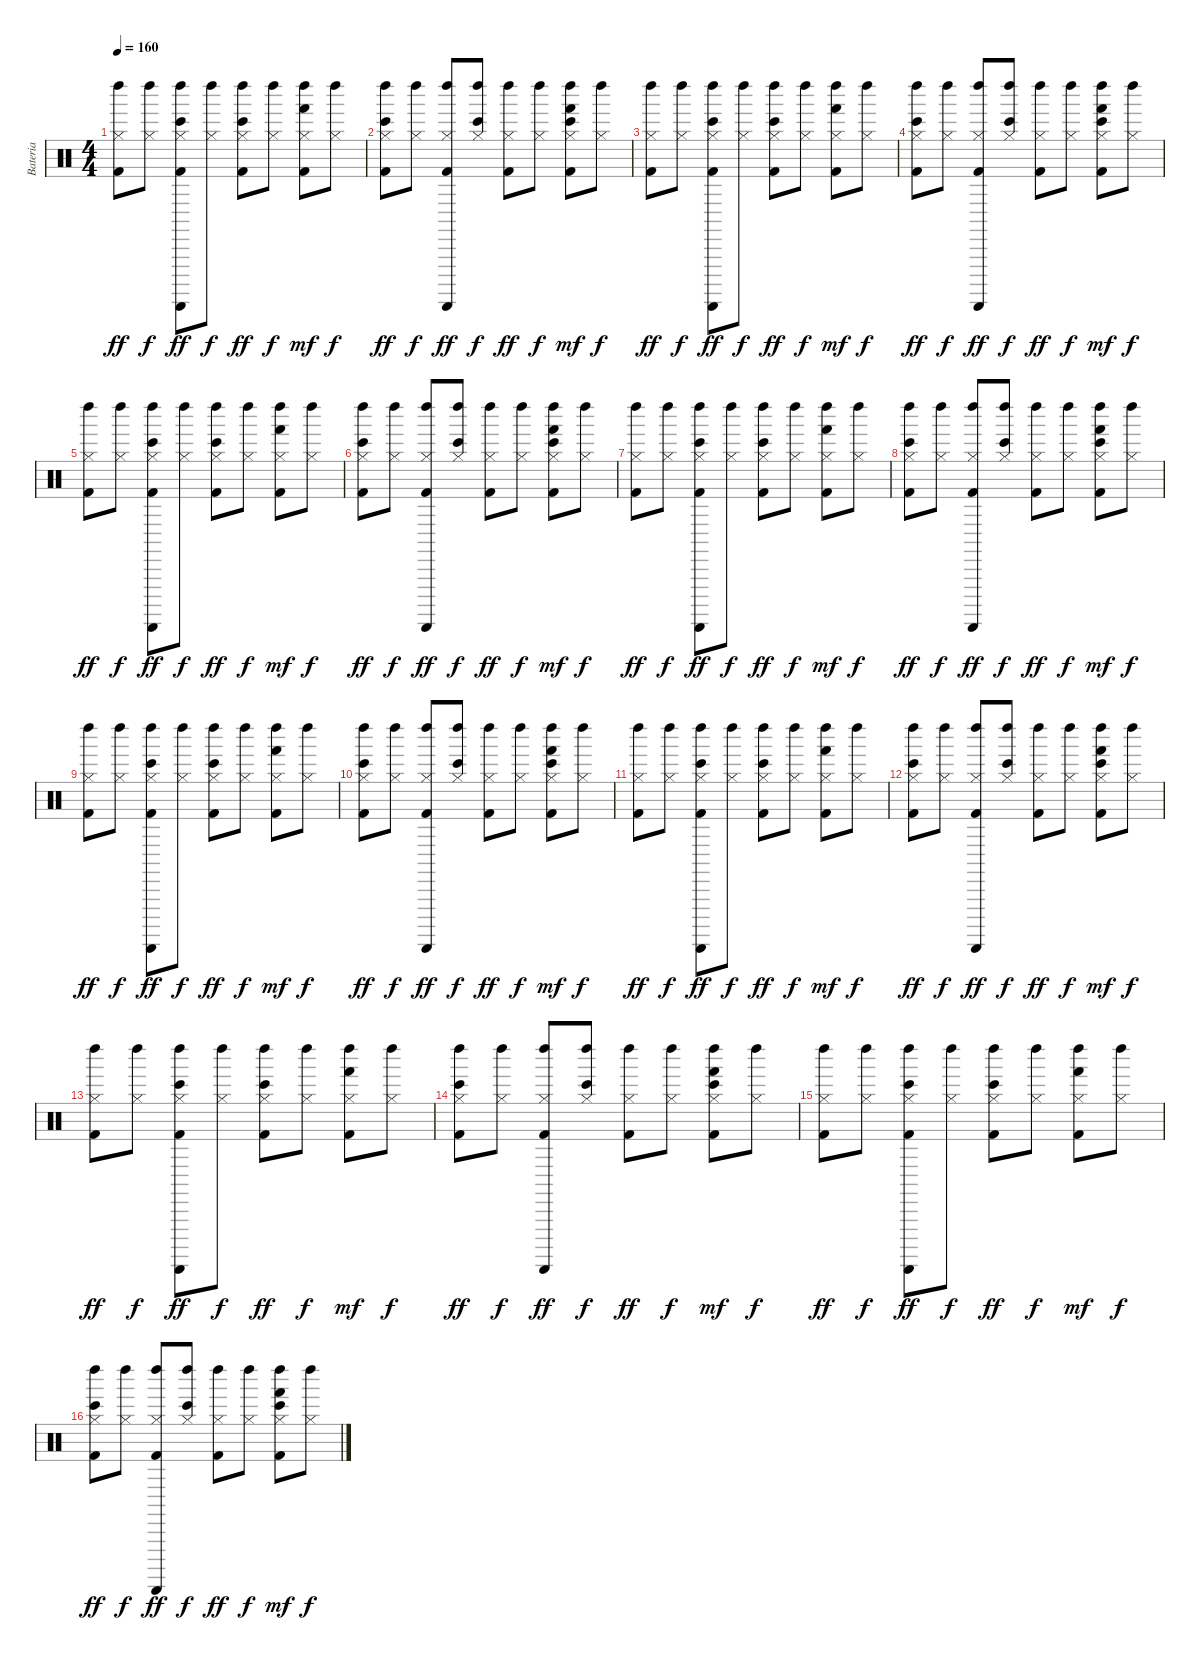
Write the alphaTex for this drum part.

\track ("Bateria" "Bateria") {instrument percussion}
\staff {score}
\articulation defaults
\ts (4 4)
\tempo 160
\clef neutral
\ks c
("Left Maraca (hit)" "Kick (hit) 2" "Hi-Hat (closed)").8{dy ff} ("Left Maraca (hit)" "Hi-Hat (closed)").8{dy f} ("Left Maraca (hit)" "Guiro (scrap-return)" "Hi-Hat (closed)" "Kick (hit) 2" "Bongo High (hit)").8{dy ff} ("Left Maraca (hit)" "Hi-Hat (closed)").8{dy f} ("Left Maraca (hit)" "Hi-Hat (closed)" "Kick (hit) 2" "Bongo High (hit)").8{dy ff} ("Left Maraca (hit)" "Hi-Hat (closed)").8{dy f} ("Left Maraca (hit)" "Hi-Hat (closed)" "Kick (hit) 2" "Hand (hit)").8{dy mf} ("Left Maraca (hit)" "Hi-Hat (closed)").8{dy f} |
("Left Maraca (hit)" "Hi-Hat (closed)" "Kick (hit) 2" "Bongo High (hit)").8{dy ff} ("Left Maraca (hit)" "Hi-Hat (closed)").8{dy f} ("Left Maraca (hit)" "Guiro (scrap-return)" "Kick (hit) 2" "Hi-Hat (closed)").8{dy ff} ("Left Maraca (hit)" "Hi-Hat (closed)" "Bongo High (hit)").8{dy f} ("Left Maraca (hit)" "Kick (hit) 2" "Hi-Hat (closed)").8{dy ff} ("Left Maraca (hit)" "Hi-Hat (closed)").8{dy f} ("Left Maraca (hit)" "Bongo High (hit)" "Hi-Hat (closed)" "Kick (hit) 2" "Hand (hit)").8{dy mf} ("Left Maraca (hit)" "Hi-Hat (closed)").8{dy f} |
("Left Maraca (hit)" "Kick (hit) 2" "Hi-Hat (closed)").8{dy ff} ("Left Maraca (hit)" "Hi-Hat (closed)").8{dy f} ("Left Maraca (hit)" "Guiro (scrap-return)" "Hi-Hat (closed)" "Kick (hit) 2" "Bongo High (hit)").8{dy ff} ("Left Maraca (hit)" "Hi-Hat (closed)").8{dy f} ("Left Maraca (hit)" "Hi-Hat (closed)" "Kick (hit) 2" "Bongo High (hit)").8{dy ff} ("Left Maraca (hit)" "Hi-Hat (closed)").8{dy f} ("Left Maraca (hit)" "Hi-Hat (closed)" "Kick (hit) 2" "Hand (hit)").8{dy mf} ("Left Maraca (hit)" "Hi-Hat (closed)").8{dy f} |
("Left Maraca (hit)" "Hi-Hat (closed)" "Kick (hit) 2" "Bongo High (hit)").8{dy ff} ("Left Maraca (hit)" "Hi-Hat (closed)").8{dy f} ("Left Maraca (hit)" "Guiro (scrap-return)" "Kick (hit) 2" "Hi-Hat (closed)").8{dy ff} ("Left Maraca (hit)" "Hi-Hat (closed)" "Bongo High (hit)").8{dy f} ("Left Maraca (hit)" "Kick (hit) 2" "Hi-Hat (closed)").8{dy ff} ("Left Maraca (hit)" "Hi-Hat (closed)").8{dy f} ("Left Maraca (hit)" "Bongo High (hit)" "Hi-Hat (closed)" "Kick (hit) 2" "Hand (hit)").8{dy mf} ("Left Maraca (hit)" "Hi-Hat (closed)").8{dy f} |
("Left Maraca (hit)" "Kick (hit) 2" "Hi-Hat (closed)").8{dy ff} ("Left Maraca (hit)" "Hi-Hat (closed)").8{dy f} ("Left Maraca (hit)" "Guiro (scrap-return)" "Hi-Hat (closed)" "Kick (hit) 2" "Bongo High (hit)").8{dy ff} ("Left Maraca (hit)" "Hi-Hat (closed)").8{dy f} ("Left Maraca (hit)" "Hi-Hat (closed)" "Kick (hit) 2" "Bongo High (hit)").8{dy ff} ("Left Maraca (hit)" "Hi-Hat (closed)").8{dy f} ("Left Maraca (hit)" "Hi-Hat (closed)" "Kick (hit) 2" "Hand (hit)").8{dy mf} ("Left Maraca (hit)" "Hi-Hat (closed)").8{dy f} |
("Left Maraca (hit)" "Hi-Hat (closed)" "Kick (hit) 2" "Bongo High (hit)").8{dy ff} ("Left Maraca (hit)" "Hi-Hat (closed)").8{dy f} ("Left Maraca (hit)" "Guiro (scrap-return)" "Kick (hit) 2" "Hi-Hat (closed)").8{dy ff} ("Left Maraca (hit)" "Hi-Hat (closed)" "Bongo High (hit)").8{dy f} ("Left Maraca (hit)" "Kick (hit) 2" "Hi-Hat (closed)").8{dy ff} ("Left Maraca (hit)" "Hi-Hat (closed)").8{dy f} ("Left Maraca (hit)" "Bongo High (hit)" "Hi-Hat (closed)" "Kick (hit) 2" "Hand (hit)").8{dy mf} ("Left Maraca (hit)" "Hi-Hat (closed)").8{dy f} |
("Left Maraca (hit)" "Kick (hit) 2" "Hi-Hat (closed)").8{dy ff} ("Left Maraca (hit)" "Hi-Hat (closed)").8{dy f} ("Left Maraca (hit)" "Guiro (scrap-return)" "Hi-Hat (closed)" "Kick (hit) 2" "Bongo High (hit)").8{dy ff} ("Left Maraca (hit)" "Hi-Hat (closed)").8{dy f} ("Left Maraca (hit)" "Hi-Hat (closed)" "Kick (hit) 2" "Bongo High (hit)").8{dy ff} ("Left Maraca (hit)" "Hi-Hat (closed)").8{dy f} ("Left Maraca (hit)" "Hi-Hat (closed)" "Kick (hit) 2" "Hand (hit)").8{dy mf} ("Left Maraca (hit)" "Hi-Hat (closed)").8{dy f} |
("Left Maraca (hit)" "Hi-Hat (closed)" "Kick (hit) 2" "Bongo High (hit)").8{dy ff} ("Left Maraca (hit)" "Hi-Hat (closed)").8{dy f} ("Left Maraca (hit)" "Guiro (scrap-return)" "Kick (hit) 2" "Hi-Hat (closed)").8{dy ff} ("Left Maraca (hit)" "Hi-Hat (closed)" "Bongo High (hit)").8{dy f} ("Left Maraca (hit)" "Kick (hit) 2" "Hi-Hat (closed)").8{dy ff} ("Left Maraca (hit)" "Hi-Hat (closed)").8{dy f} ("Left Maraca (hit)" "Bongo High (hit)" "Hi-Hat (closed)" "Kick (hit) 2" "Hand (hit)").8{dy mf} ("Left Maraca (hit)" "Hi-Hat (closed)").8{dy f} |
("Left Maraca (hit)" "Kick (hit) 2" "Hi-Hat (closed)").8{dy ff} ("Left Maraca (hit)" "Hi-Hat (closed)").8{dy f} ("Left Maraca (hit)" "Guiro (scrap-return)" "Hi-Hat (closed)" "Kick (hit) 2" "Bongo High (hit)").8{dy ff} ("Left Maraca (hit)" "Hi-Hat (closed)").8{dy f} ("Left Maraca (hit)" "Hi-Hat (closed)" "Kick (hit) 2" "Bongo High (hit)").8{dy ff} ("Left Maraca (hit)" "Hi-Hat (closed)").8{dy f} ("Left Maraca (hit)" "Hi-Hat (closed)" "Kick (hit) 2" "Hand (hit)").8{dy mf} ("Left Maraca (hit)" "Hi-Hat (closed)").8{dy f} |
("Left Maraca (hit)" "Hi-Hat (closed)" "Kick (hit) 2" "Bongo High (hit)").8{dy ff} ("Left Maraca (hit)" "Hi-Hat (closed)").8{dy f} ("Left Maraca (hit)" "Guiro (scrap-return)" "Kick (hit) 2" "Hi-Hat (closed)").8{dy ff} ("Left Maraca (hit)" "Hi-Hat (closed)" "Bongo High (hit)").8{dy f} ("Left Maraca (hit)" "Kick (hit) 2" "Hi-Hat (closed)").8{dy ff} ("Left Maraca (hit)" "Hi-Hat (closed)").8{dy f} ("Left Maraca (hit)" "Bongo High (hit)" "Hi-Hat (closed)" "Kick (hit) 2" "Hand (hit)").8{dy mf} ("Left Maraca (hit)" "Hi-Hat (closed)").8{dy f} |
("Left Maraca (hit)" "Kick (hit) 2" "Hi-Hat (closed)").8{dy ff} ("Left Maraca (hit)" "Hi-Hat (closed)").8{dy f} ("Left Maraca (hit)" "Guiro (scrap-return)" "Hi-Hat (closed)" "Kick (hit) 2" "Bongo High (hit)").8{dy ff} ("Left Maraca (hit)" "Hi-Hat (closed)").8{dy f} ("Left Maraca (hit)" "Hi-Hat (closed)" "Kick (hit) 2" "Bongo High (hit)").8{dy ff} ("Left Maraca (hit)" "Hi-Hat (closed)").8{dy f} ("Left Maraca (hit)" "Hi-Hat (closed)" "Kick (hit) 2" "Hand (hit)").8{dy mf} ("Left Maraca (hit)" "Hi-Hat (closed)").8{dy f} |
("Left Maraca (hit)" "Hi-Hat (closed)" "Kick (hit) 2" "Bongo High (hit)").8{dy ff} ("Left Maraca (hit)" "Hi-Hat (closed)").8{dy f} ("Left Maraca (hit)" "Guiro (scrap-return)" "Kick (hit) 2" "Hi-Hat (closed)").8{dy ff} ("Left Maraca (hit)" "Hi-Hat (closed)" "Bongo High (hit)").8{dy f} ("Left Maraca (hit)" "Kick (hit) 2" "Hi-Hat (closed)").8{dy ff} ("Left Maraca (hit)" "Hi-Hat (closed)").8{dy f} ("Left Maraca (hit)" "Bongo High (hit)" "Hi-Hat (closed)" "Kick (hit) 2" "Hand (hit)").8{dy mf} ("Left Maraca (hit)" "Hi-Hat (closed)").8{dy f} |
("Left Maraca (hit)" "Kick (hit) 2" "Hi-Hat (closed)").8{dy ff} ("Left Maraca (hit)" "Hi-Hat (closed)").8{dy f} ("Left Maraca (hit)" "Guiro (scrap-return)" "Hi-Hat (closed)" "Kick (hit) 2" "Bongo High (hit)").8{dy ff} ("Left Maraca (hit)" "Hi-Hat (closed)").8{dy f} ("Left Maraca (hit)" "Hi-Hat (closed)" "Kick (hit) 2" "Bongo High (hit)").8{dy ff} ("Left Maraca (hit)" "Hi-Hat (closed)").8{dy f} ("Left Maraca (hit)" "Hi-Hat (closed)" "Kick (hit) 2" "Hand (hit)").8{dy mf} ("Left Maraca (hit)" "Hi-Hat (closed)").8{dy f} |
("Left Maraca (hit)" "Hi-Hat (closed)" "Kick (hit) 2" "Bongo High (hit)").8{dy ff} ("Left Maraca (hit)" "Hi-Hat (closed)").8{dy f} ("Left Maraca (hit)" "Guiro (scrap-return)" "Kick (hit) 2" "Hi-Hat (closed)").8{dy ff} ("Left Maraca (hit)" "Hi-Hat (closed)" "Bongo High (hit)").8{dy f} ("Left Maraca (hit)" "Kick (hit) 2" "Hi-Hat (closed)").8{dy ff} ("Left Maraca (hit)" "Hi-Hat (closed)").8{dy f} ("Left Maraca (hit)" "Bongo High (hit)" "Hi-Hat (closed)" "Kick (hit) 2" "Hand (hit)").8{dy mf} ("Left Maraca (hit)" "Hi-Hat (closed)").8{dy f} |
("Left Maraca (hit)" "Kick (hit) 2" "Hi-Hat (closed)").8{dy ff} ("Left Maraca (hit)" "Hi-Hat (closed)").8{dy f} ("Left Maraca (hit)" "Guiro (scrap-return)" "Hi-Hat (closed)" "Kick (hit) 2" "Bongo High (hit)").8{dy ff} ("Left Maraca (hit)" "Hi-Hat (closed)").8{dy f} ("Left Maraca (hit)" "Hi-Hat (closed)" "Kick (hit) 2" "Bongo High (hit)").8{dy ff} ("Left Maraca (hit)" "Hi-Hat (closed)").8{dy f} ("Left Maraca (hit)" "Hi-Hat (closed)" "Kick (hit) 2" "Hand (hit)").8{dy mf} ("Left Maraca (hit)" "Hi-Hat (closed)").8{dy f} |
("Left Maraca (hit)" "Hi-Hat (closed)" "Kick (hit) 2" "Bongo High (hit)").8{dy ff} ("Left Maraca (hit)" "Hi-Hat (closed)").8{dy f} ("Left Maraca (hit)" "Guiro (scrap-return)" "Kick (hit) 2" "Hi-Hat (closed)").8{dy ff} ("Left Maraca (hit)" "Hi-Hat (closed)" "Bongo High (hit)").8{dy f} ("Left Maraca (hit)" "Kick (hit) 2" "Hi-Hat (closed)").8{dy ff} ("Left Maraca (hit)" "Hi-Hat (closed)").8{dy f} ("Left Maraca (hit)" "Bongo High (hit)" "Hi-Hat (closed)" "Kick (hit) 2" "Hand (hit)").8{dy mf} ("Left Maraca (hit)" "Hi-Hat (closed)").8{dy f}
